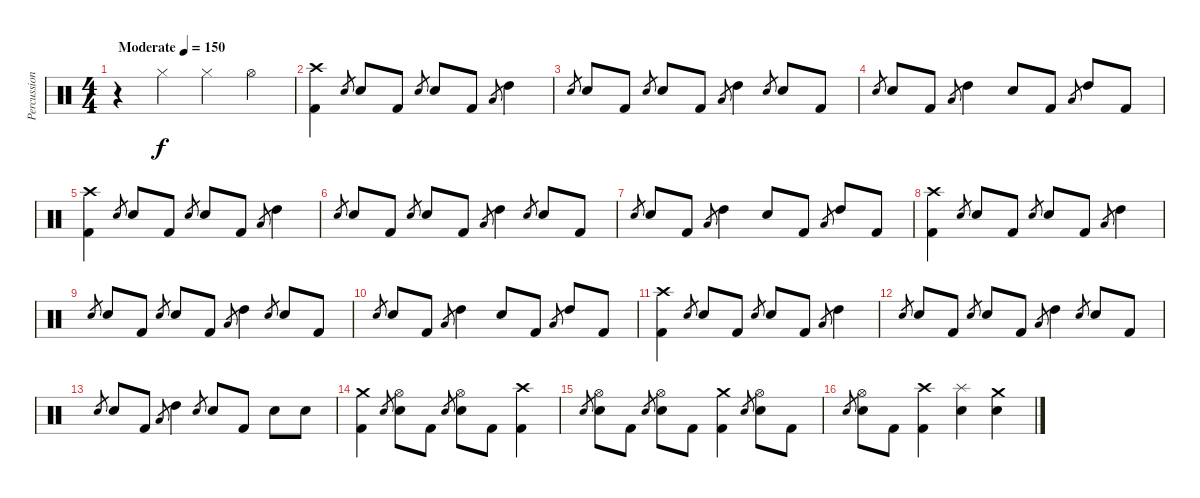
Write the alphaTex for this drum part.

\track ("Percussion" "Percussion") {instrument percussion}
\staff {score}
\articulation defaults
\ts (4 4)
\tempo (150 "Moderate")
\clef neutral
\ks c
r.4{dy f} "Hi-Hat (closed)".4 "Hi-Hat (closed)".4 "Hi-Hat (open)".4 |
("Crash high (hit)" "Kick (hit) 2").4 "Electric Snare (hit)".8{gr} "Electric Snare (hit)".8 "Kick (hit) 2".8 "Electric Snare (hit)".8{gr} "Electric Snare (hit)".8 "Kick (hit) 2".8 "Low Tom (hit)".8{gr} "High Tom (hit)".4 |
"Electric Snare (hit)".8{gr} "Electric Snare (hit)".8 "Kick (hit) 2".8 "Electric Snare (hit)".8{gr} "Electric Snare (hit)".8 "Kick (hit) 2".8 "Low Tom (hit)".8{gr} "High Tom (hit)".4 "Electric Snare (hit)".8{gr} "Electric Snare (hit)".8 "Kick (hit) 2".8 |
"Electric Snare (hit)".8{gr} "Electric Snare (hit)".8 "Kick (hit) 2".8 "Low Tom (hit)".8{gr} "High Tom (hit)".4 "Electric Snare (hit)".8 "Kick (hit) 2".8 "Low Tom (hit)".8{gr} "High Tom (hit)".8 "Kick (hit) 2".8 |
("Crash high (hit)" "Kick (hit) 2").4 "Electric Snare (hit)".8{gr} "Electric Snare (hit)".8 "Kick (hit) 2".8 "Electric Snare (hit)".8{gr} "Electric Snare (hit)".8 "Kick (hit) 2".8 "Low Tom (hit)".8{gr} "High Tom (hit)".4 |
"Electric Snare (hit)".8{gr} "Electric Snare (hit)".8 "Kick (hit) 2".8 "Electric Snare (hit)".8{gr} "Electric Snare (hit)".8 "Kick (hit) 2".8 "Low Tom (hit)".8{gr} "High Tom (hit)".4 "Electric Snare (hit)".8{gr} "Electric Snare (hit)".8 "Kick (hit) 2".8 |
"Electric Snare (hit)".8{gr} "Electric Snare (hit)".8 "Kick (hit) 2".8 "Low Tom (hit)".8{gr} "High Tom (hit)".4 "Electric Snare (hit)".8 "Kick (hit) 2".8 "Low Tom (hit)".8{gr} "High Tom (hit)".8 "Kick (hit) 2".8 |
("Crash high (hit)" "Kick (hit) 2").4 "Electric Snare (hit)".8{gr} "Electric Snare (hit)".8 "Kick (hit) 2".8 "Electric Snare (hit)".8{gr} "Electric Snare (hit)".8 "Kick (hit) 2".8 "Low Tom (hit)".8{gr} "High Tom (hit)".4 |
"Electric Snare (hit)".8{gr} "Electric Snare (hit)".8 "Kick (hit) 2".8 "Electric Snare (hit)".8{gr} "Electric Snare (hit)".8 "Kick (hit) 2".8 "Low Tom (hit)".8{gr} "High Tom (hit)".4 "Electric Snare (hit)".8{gr} "Electric Snare (hit)".8 "Kick (hit) 2".8 |
"Electric Snare (hit)".8{gr} "Electric Snare (hit)".8 "Kick (hit) 2".8 "Low Tom (hit)".8{gr} "High Tom (hit)".4 "Electric Snare (hit)".8 "Kick (hit) 2".8 "Low Tom (hit)".8{gr} "High Tom (hit)".8 "Kick (hit) 2".8 |
("Crash high (hit)" "Kick (hit) 2").4 "Electric Snare (hit)".8{gr} "Electric Snare (hit)".8 "Kick (hit) 2".8 "Electric Snare (hit)".8{gr} "Electric Snare (hit)".8 "Kick (hit) 2".8 "Low Tom (hit)".8{gr} "High Tom (hit)".4 |
"Electric Snare (hit)".8{gr} "Electric Snare (hit)".8 "Kick (hit) 2".8 "Electric Snare (hit)".8{gr} "Electric Snare (hit)".8 "Kick (hit) 2".8 "Low Tom (hit)".8{gr} "High Tom (hit)".4 "Electric Snare (hit)".8{gr} "Electric Snare (hit)".8 "Kick (hit) 2".8 |
"Electric Snare (hit)".8{gr} "Electric Snare (hit)".8 "Kick (hit) 2".8 "Low Tom (hit)".8{gr} "High Tom (hit)".4 "Electric Snare (hit)".8{gr} "Electric Snare (hit)".8 "Kick (hit) 2".8 "Electric Snare (hit)".8 "Electric Snare (hit)".8 |
("Crash medium (hit)" "Kick (hit) 2").4 "Electric Snare (hit)".8{gr} ("Hi-Hat (open)" "Electric Snare (hit)").8 "Kick (hit) 2".8 "Electric Snare (hit)".8{gr} ("Hi-Hat (open)" "Electric Snare (hit)").8 "Kick (hit) 2".8 ("Crash high (hit)" "Kick (hit) 2").4 |
"Electric Snare (hit)".8{gr} ("Hi-Hat (open)" "Electric Snare (hit)").8 "Kick (hit) 2".8 "Electric Snare (hit)".8{gr} ("Hi-Hat (open)" "Electric Snare (hit)").8 "Kick (hit) 2".8 ("Crash medium (hit)" "Kick (hit) 2").4 "Electric Snare (hit)".8{gr} ("Hi-Hat (open)" "Electric Snare (hit)").8 "Kick (hit) 2".8 |
"Electric Snare (hit)".8{gr} ("Hi-Hat (open)" "Electric Snare (hit)").8 "Kick (hit) 2".8 ("Crash high (hit)" "Kick (hit) 2").4 ("Splash (hit)" "Electric Snare (hit)").4 ("Crash medium (hit)" "Electric Snare (hit)").4
